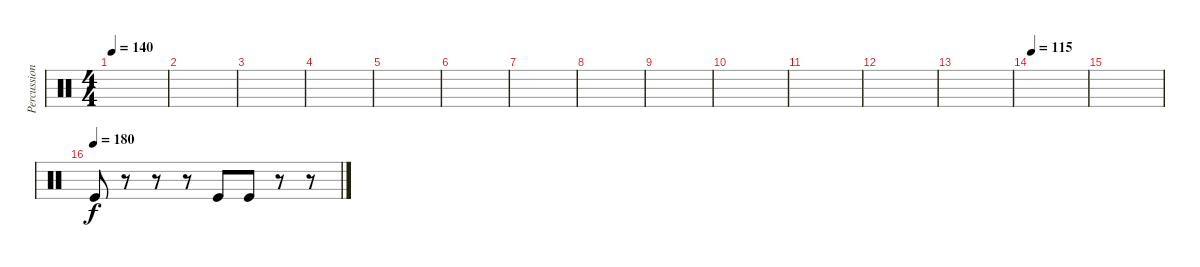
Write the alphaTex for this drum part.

\track ("Percussion" "Percussion") {instrument percussion}
\staff {score}
\articulation defaults
\ts (4 4)
\tempo 140
\clef neutral
\ks c
|
|
|
|
|
|
|
|
|
|
|
|
|
\tempo 115
|
|
\tempo (180)
"Kick (hit)".8 r.8 r.8 r.8 "Kick (hit)".8 "Kick (hit)".8 r.8 r.8
